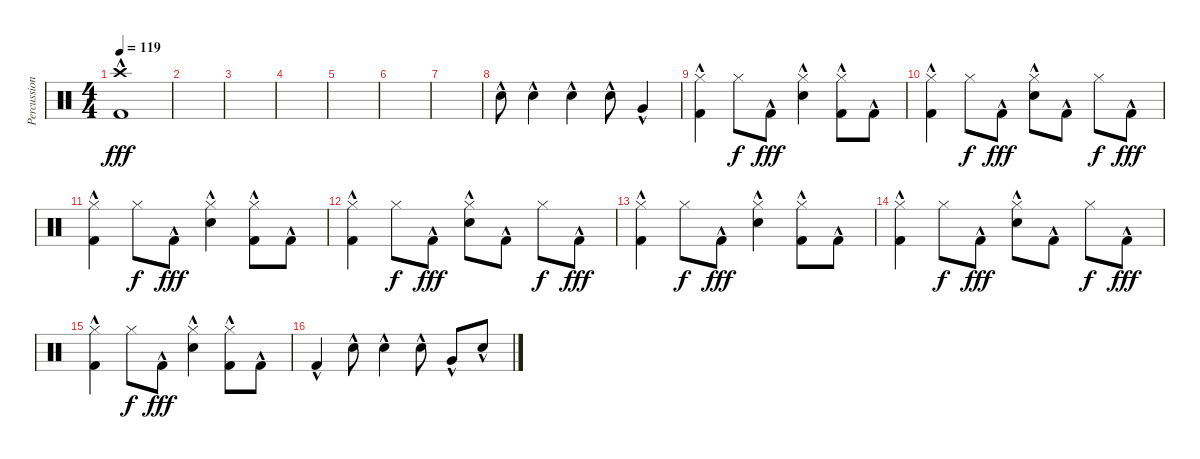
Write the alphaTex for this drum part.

\track ("Percussion" "Percussion") {instrument percussion}
\staff {score}
\articulation defaults
\ts (4 4)
\tempo 119
\clef neutral
\ks c
("Crash high (hit)" "Kick (hit) 2"{hac}).1{dy fff} |
|
|
|
|
|
|
"Electric Snare (hit)"{hac}.8 "Electric Snare (hit)"{hac}.4 "Electric Snare (hit)"{hac}.4 "Snare (hit) 2"{hac}.8 "Very Low Tom (hit)"{hac}.4 |
("Hi-Hat (closed)" "Kick (hit) 2"{hac}).4 "Hi-Hat (closed)".8{dy f} "Kick (hit) 2"{hac}.8{dy fff} ("Hi-Hat (closed)" "Electric Snare (hit)"{hac}).4 ("Hi-Hat (closed)" "Kick (hit) 2"{hac}).8 "Kick (hit) 2"{hac}.8 |
("Hi-Hat (closed)" "Kick (hit) 2"{hac}).4 "Hi-Hat (closed)".8{dy f} "Kick (hit) 2"{hac}.8{dy fff} ("Hi-Hat (closed)" "Electric Snare (hit)"{hac}).8 "Kick (hit) 2"{hac}.8 "Hi-Hat (closed)".8{dy f} "Kick (hit) 2"{hac}.8{dy fff} |
("Hi-Hat (closed)" "Kick (hit) 2"{hac}).4 "Hi-Hat (closed)".8{dy f} "Kick (hit) 2"{hac}.8{dy fff} ("Hi-Hat (closed)" "Electric Snare (hit)"{hac}).4 ("Hi-Hat (closed)" "Kick (hit) 2"{hac}).8 "Kick (hit) 2"{hac}.8 |
("Hi-Hat (closed)" "Kick (hit) 2"{hac}).4 "Hi-Hat (closed)".8{dy f} "Kick (hit) 2"{hac}.8{dy fff} ("Hi-Hat (closed)" "Electric Snare (hit)"{hac}).8 "Kick (hit) 2"{hac}.8 "Hi-Hat (closed)".8{dy f} "Kick (hit) 2"{hac}.8{dy fff} |
("Hi-Hat (closed)" "Kick (hit) 2"{hac}).4 "Hi-Hat (closed)".8{dy f} "Kick (hit) 2"{hac}.8{dy fff} ("Hi-Hat (closed)" "Electric Snare (hit)"{hac}).4 ("Hi-Hat (closed)" "Kick (hit) 2"{hac}).8 "Kick (hit) 2"{hac}.8 |
("Hi-Hat (closed)" "Kick (hit) 2"{hac}).4 "Hi-Hat (closed)".8{dy f} "Kick (hit) 2"{hac}.8{dy fff} ("Hi-Hat (closed)" "Electric Snare (hit)"{hac}).8 "Kick (hit) 2"{hac}.8 "Hi-Hat (closed)".8{dy f} "Kick (hit) 2"{hac}.8{dy fff} |
("Hi-Hat (closed)" "Kick (hit) 2"{hac}).4 "Hi-Hat (closed)".8{dy f} "Kick (hit) 2"{hac}.8{dy fff} ("Hi-Hat (closed)" "Electric Snare (hit)"{hac}).4 ("Hi-Hat (closed)" "Kick (hit) 2"{hac}).8 "Kick (hit) 2"{hac}.8 |
"Kick (hit) 2"{hac}.4 "Electric Snare (hit)"{hac}.8 "Electric Snare (hit)"{hac}.4 "Electric Snare (hit)"{hac}.8 "Very Low Tom (hit)"{hac}.8 "Electric Snare (hit)"{hac}.8
